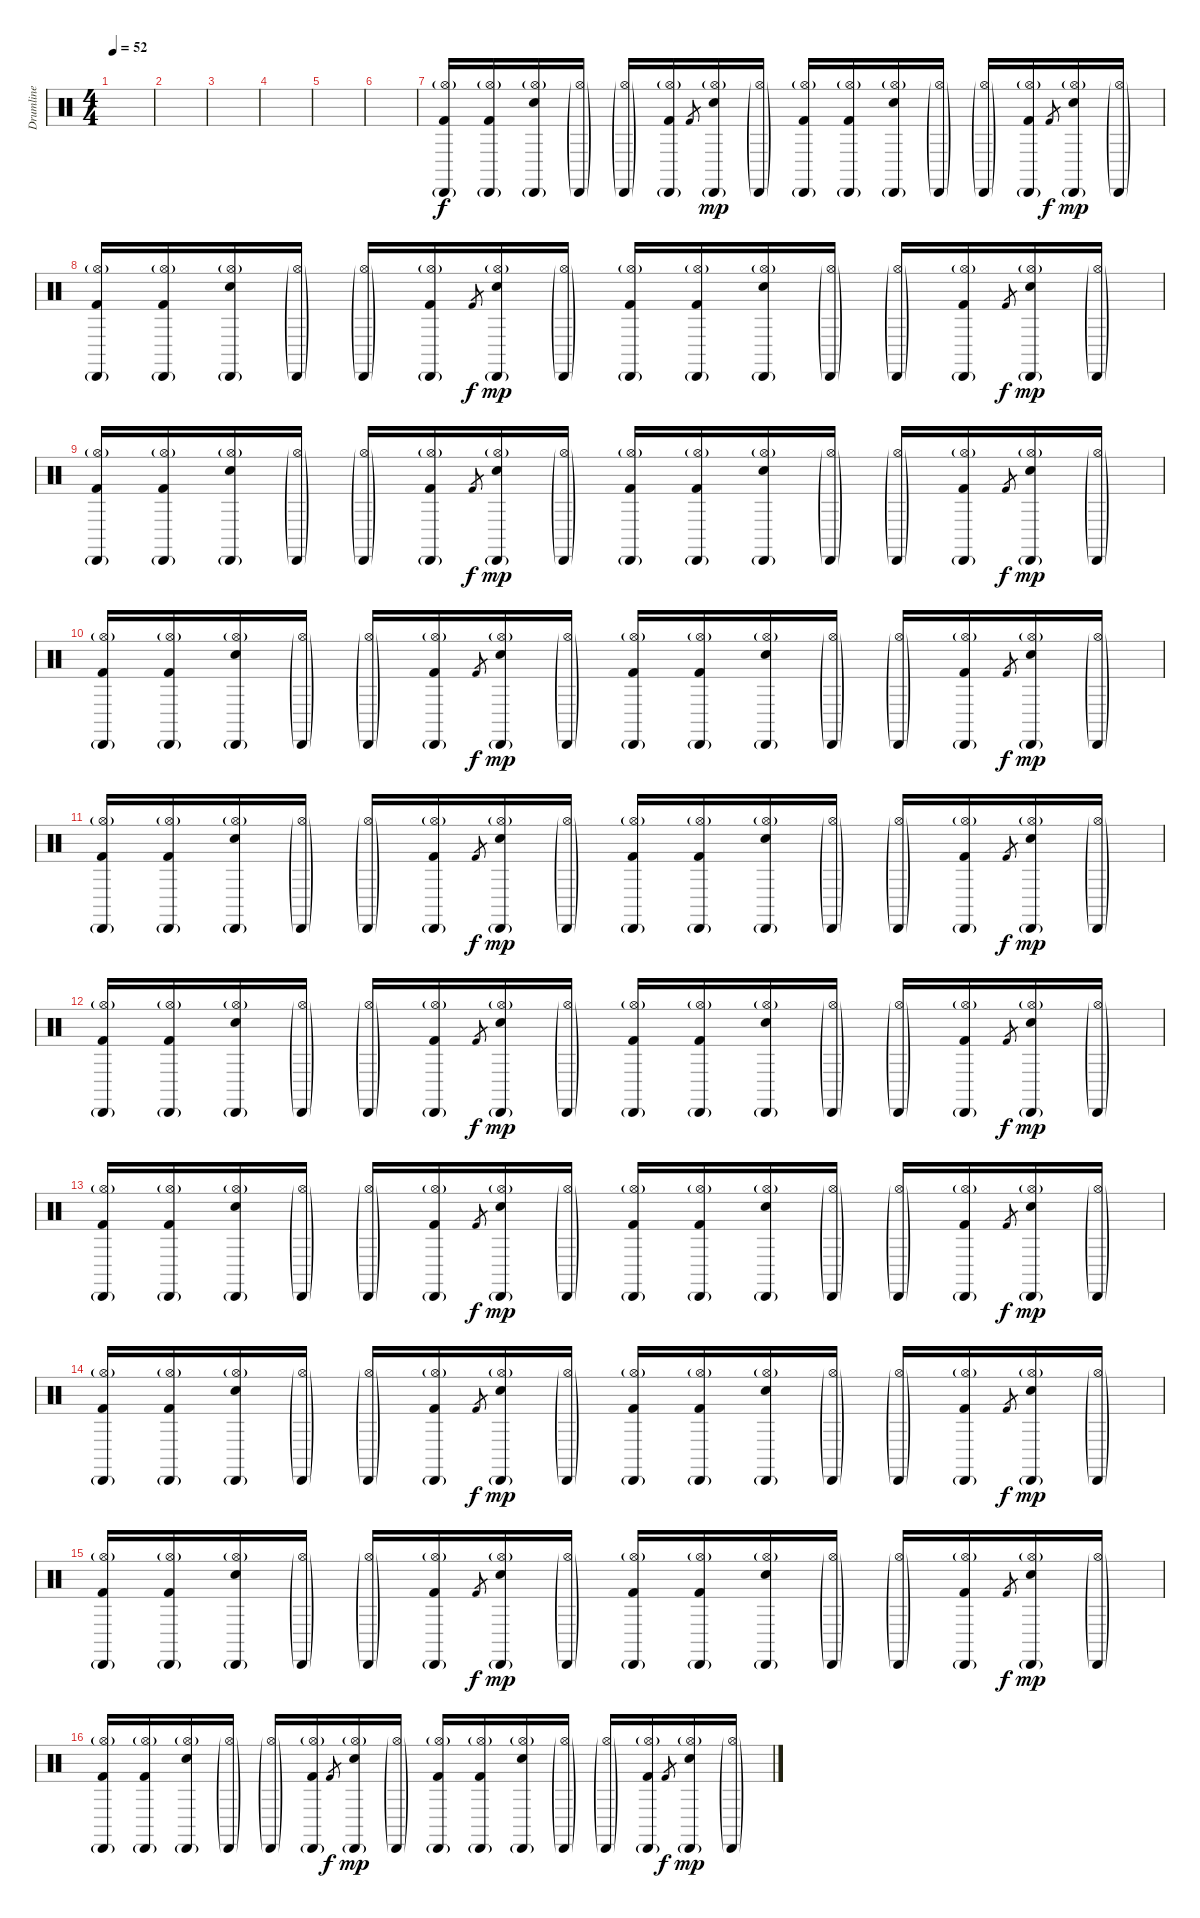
\track ("Drumline" "Drumline") {instrument percussion}
\staff {score}
\articulation defaults
\ts (4 4)
\tempo 52
\clef neutral
\ks c
|
|
|
|
|
|
("Hi-Hat (open)"{g} "Cabasa (hit)"{g} "Kick (hit) 2").16 ("Hi-Hat (open)"{g} "Cabasa (hit)"{g} "Kick (hit) 2").16 ("Hi-Hat (open)"{g} "Cabasa (hit)"{g} "Snare (hit) 2").16 ("Hi-Hat (open)"{g} "Cabasa (hit)"{g}).16 ("Hi-Hat (open)"{g} "Cabasa (hit)"{g}).16 ("Hi-Hat (open)"{g} "Cabasa (hit)"{g} "Kick (hit) 2").16 "Kick (hit) 2".8{gr dy f} ("Hi-Hat (open)"{g} "Cabasa (hit)"{g} "Snare (hit) 2").16{dy mp} ("Hi-Hat (open)"{g} "Cabasa (hit)"{g}).16 ("Hi-Hat (open)"{g} "Cabasa (hit)"{g} "Kick (hit) 2").16 ("Hi-Hat (open)"{g} "Cabasa (hit)"{g} "Kick (hit) 2").16 ("Hi-Hat (open)"{g} "Cabasa (hit)"{g} "Snare (hit) 2").16 ("Hi-Hat (open)"{g} "Cabasa (hit)"{g}).16 ("Hi-Hat (open)"{g} "Cabasa (hit)"{g}).16 ("Hi-Hat (open)"{g} "Cabasa (hit)"{g} "Kick (hit) 2").16 "Kick (hit) 2".8{gr dy f} ("Hi-Hat (open)"{g} "Cabasa (hit)"{g} "Snare (hit) 2").16{dy mp} ("Hi-Hat (open)"{g} "Cabasa (hit)"{g}).16 |
("Hi-Hat (open)"{g} "Cabasa (hit)"{g} "Kick (hit) 2").16 ("Hi-Hat (open)"{g} "Cabasa (hit)"{g} "Kick (hit) 2").16 ("Hi-Hat (open)"{g} "Cabasa (hit)"{g} "Snare (hit) 2").16 ("Hi-Hat (open)"{g} "Cabasa (hit)"{g}).16 ("Hi-Hat (open)"{g} "Cabasa (hit)"{g}).16 ("Hi-Hat (open)"{g} "Cabasa (hit)"{g} "Kick (hit) 2").16 "Kick (hit) 2".8{gr dy f} ("Hi-Hat (open)"{g} "Cabasa (hit)"{g} "Snare (hit) 2").16{dy mp} ("Hi-Hat (open)"{g} "Cabasa (hit)"{g}).16 ("Hi-Hat (open)"{g} "Cabasa (hit)"{g} "Kick (hit) 2").16 ("Hi-Hat (open)"{g} "Cabasa (hit)"{g} "Kick (hit) 2").16 ("Hi-Hat (open)"{g} "Cabasa (hit)"{g} "Snare (hit) 2").16 ("Hi-Hat (open)"{g} "Cabasa (hit)"{g}).16 ("Hi-Hat (open)"{g} "Cabasa (hit)"{g}).16 ("Hi-Hat (open)"{g} "Cabasa (hit)"{g} "Kick (hit) 2").16 "Kick (hit) 2".8{gr dy f} ("Hi-Hat (open)"{g} "Cabasa (hit)"{g} "Snare (hit) 2").16{dy mp} ("Hi-Hat (open)"{g} "Cabasa (hit)"{g}).16 |
("Hi-Hat (open)"{g} "Cabasa (hit)"{g} "Kick (hit) 2").16 ("Hi-Hat (open)"{g} "Cabasa (hit)"{g} "Kick (hit) 2").16 ("Hi-Hat (open)"{g} "Cabasa (hit)"{g} "Snare (hit) 2").16 ("Hi-Hat (open)"{g} "Cabasa (hit)"{g}).16 ("Hi-Hat (open)"{g} "Cabasa (hit)"{g}).16 ("Hi-Hat (open)"{g} "Cabasa (hit)"{g} "Kick (hit) 2").16 "Kick (hit) 2".8{gr dy f} ("Hi-Hat (open)"{g} "Cabasa (hit)"{g} "Snare (hit) 2").16{dy mp} ("Hi-Hat (open)"{g} "Cabasa (hit)"{g}).16 ("Hi-Hat (open)"{g} "Cabasa (hit)"{g} "Kick (hit) 2").16 ("Hi-Hat (open)"{g} "Cabasa (hit)"{g} "Kick (hit) 2").16 ("Hi-Hat (open)"{g} "Cabasa (hit)"{g} "Snare (hit) 2").16 ("Hi-Hat (open)"{g} "Cabasa (hit)"{g}).16 ("Hi-Hat (open)"{g} "Cabasa (hit)"{g}).16 ("Hi-Hat (open)"{g} "Cabasa (hit)"{g} "Kick (hit) 2").16 "Kick (hit) 2".8{gr dy f} ("Hi-Hat (open)"{g} "Cabasa (hit)"{g} "Snare (hit) 2").16{dy mp} ("Hi-Hat (open)"{g} "Cabasa (hit)"{g}).16 |
("Hi-Hat (open)"{g} "Cabasa (hit)"{g} "Kick (hit) 2").16 ("Hi-Hat (open)"{g} "Cabasa (hit)"{g} "Kick (hit) 2").16 ("Hi-Hat (open)"{g} "Cabasa (hit)"{g} "Snare (hit) 2").16 ("Hi-Hat (open)"{g} "Cabasa (hit)"{g}).16 ("Hi-Hat (open)"{g} "Cabasa (hit)"{g}).16 ("Hi-Hat (open)"{g} "Cabasa (hit)"{g} "Kick (hit) 2").16 "Kick (hit) 2".8{gr dy f} ("Hi-Hat (open)"{g} "Cabasa (hit)"{g} "Snare (hit) 2").16{dy mp} ("Hi-Hat (open)"{g} "Cabasa (hit)"{g}).16 ("Hi-Hat (open)"{g} "Cabasa (hit)"{g} "Kick (hit) 2").16 ("Hi-Hat (open)"{g} "Cabasa (hit)"{g} "Kick (hit) 2").16 ("Hi-Hat (open)"{g} "Cabasa (hit)"{g} "Snare (hit) 2").16 ("Hi-Hat (open)"{g} "Cabasa (hit)"{g}).16 ("Hi-Hat (open)"{g} "Cabasa (hit)"{g}).16 ("Hi-Hat (open)"{g} "Cabasa (hit)"{g} "Kick (hit) 2").16 "Kick (hit) 2".8{gr dy f} ("Hi-Hat (open)"{g} "Cabasa (hit)"{g} "Snare (hit) 2").16{dy mp} ("Hi-Hat (open)"{g} "Cabasa (hit)"{g}).16 |
("Hi-Hat (open)"{g} "Cabasa (hit)"{g} "Kick (hit) 2").16 ("Hi-Hat (open)"{g} "Cabasa (hit)"{g} "Kick (hit) 2").16 ("Hi-Hat (open)"{g} "Cabasa (hit)"{g} "Snare (hit) 2").16 ("Hi-Hat (open)"{g} "Cabasa (hit)"{g}).16 ("Hi-Hat (open)"{g} "Cabasa (hit)"{g}).16 ("Hi-Hat (open)"{g} "Cabasa (hit)"{g} "Kick (hit) 2").16 "Kick (hit) 2".8{gr dy f} ("Hi-Hat (open)"{g} "Cabasa (hit)"{g} "Snare (hit) 2").16{dy mp} ("Hi-Hat (open)"{g} "Cabasa (hit)"{g}).16 ("Hi-Hat (open)"{g} "Cabasa (hit)"{g} "Kick (hit) 2").16 ("Hi-Hat (open)"{g} "Cabasa (hit)"{g} "Kick (hit) 2").16 ("Hi-Hat (open)"{g} "Cabasa (hit)"{g} "Snare (hit) 2").16 ("Hi-Hat (open)"{g} "Cabasa (hit)"{g}).16 ("Hi-Hat (open)"{g} "Cabasa (hit)"{g}).16 ("Hi-Hat (open)"{g} "Cabasa (hit)"{g} "Kick (hit) 2").16 "Kick (hit) 2".8{gr dy f} ("Hi-Hat (open)"{g} "Cabasa (hit)"{g} "Snare (hit) 2").16{dy mp} ("Hi-Hat (open)"{g} "Cabasa (hit)"{g}).16 |
("Hi-Hat (open)"{g} "Cabasa (hit)"{g} "Kick (hit) 2").16 ("Hi-Hat (open)"{g} "Cabasa (hit)"{g} "Kick (hit) 2").16 ("Hi-Hat (open)"{g} "Cabasa (hit)"{g} "Snare (hit) 2").16 ("Hi-Hat (open)"{g} "Cabasa (hit)"{g}).16 ("Hi-Hat (open)"{g} "Cabasa (hit)"{g}).16 ("Hi-Hat (open)"{g} "Cabasa (hit)"{g} "Kick (hit) 2").16 "Kick (hit) 2".8{gr dy f} ("Hi-Hat (open)"{g} "Cabasa (hit)"{g} "Snare (hit) 2").16{dy mp} ("Hi-Hat (open)"{g} "Cabasa (hit)"{g}).16 ("Hi-Hat (open)"{g} "Cabasa (hit)"{g} "Kick (hit) 2").16 ("Hi-Hat (open)"{g} "Cabasa (hit)"{g} "Kick (hit) 2").16 ("Hi-Hat (open)"{g} "Cabasa (hit)"{g} "Snare (hit) 2").16 ("Hi-Hat (open)"{g} "Cabasa (hit)"{g}).16 ("Hi-Hat (open)"{g} "Cabasa (hit)"{g}).16 ("Hi-Hat (open)"{g} "Cabasa (hit)"{g} "Kick (hit) 2").16 "Kick (hit) 2".8{gr dy f} ("Hi-Hat (open)"{g} "Cabasa (hit)"{g} "Snare (hit) 2").16{dy mp} ("Hi-Hat (open)"{g} "Cabasa (hit)"{g}).16 |
("Hi-Hat (open)"{g} "Cabasa (hit)"{g} "Kick (hit) 2").16 ("Hi-Hat (open)"{g} "Cabasa (hit)"{g} "Kick (hit) 2").16 ("Hi-Hat (open)"{g} "Cabasa (hit)"{g} "Snare (hit) 2").16 ("Hi-Hat (open)"{g} "Cabasa (hit)"{g}).16 ("Hi-Hat (open)"{g} "Cabasa (hit)"{g}).16 ("Hi-Hat (open)"{g} "Cabasa (hit)"{g} "Kick (hit) 2").16 "Kick (hit) 2".8{gr dy f} ("Hi-Hat (open)"{g} "Cabasa (hit)"{g} "Snare (hit) 2").16{dy mp} ("Hi-Hat (open)"{g} "Cabasa (hit)"{g}).16 ("Hi-Hat (open)"{g} "Cabasa (hit)"{g} "Kick (hit) 2").16 ("Hi-Hat (open)"{g} "Cabasa (hit)"{g} "Kick (hit) 2").16 ("Hi-Hat (open)"{g} "Cabasa (hit)"{g} "Snare (hit) 2").16 ("Hi-Hat (open)"{g} "Cabasa (hit)"{g}).16 ("Hi-Hat (open)"{g} "Cabasa (hit)"{g}).16 ("Hi-Hat (open)"{g} "Cabasa (hit)"{g} "Kick (hit) 2").16 "Kick (hit) 2".8{gr dy f} ("Hi-Hat (open)"{g} "Cabasa (hit)"{g} "Snare (hit) 2").16{dy mp} ("Hi-Hat (open)"{g} "Cabasa (hit)"{g}).16 |
("Hi-Hat (open)"{g} "Cabasa (hit)"{g} "Kick (hit) 2").16 ("Hi-Hat (open)"{g} "Cabasa (hit)"{g} "Kick (hit) 2").16 ("Hi-Hat (open)"{g} "Cabasa (hit)"{g} "Snare (hit) 2").16 ("Hi-Hat (open)"{g} "Cabasa (hit)"{g}).16 ("Hi-Hat (open)"{g} "Cabasa (hit)"{g}).16 ("Hi-Hat (open)"{g} "Cabasa (hit)"{g} "Kick (hit) 2").16 "Kick (hit) 2".8{gr dy f} ("Hi-Hat (open)"{g} "Cabasa (hit)"{g} "Snare (hit) 2").16{dy mp} ("Hi-Hat (open)"{g} "Cabasa (hit)"{g}).16 ("Hi-Hat (open)"{g} "Cabasa (hit)"{g} "Kick (hit) 2").16 ("Hi-Hat (open)"{g} "Cabasa (hit)"{g} "Kick (hit) 2").16 ("Hi-Hat (open)"{g} "Cabasa (hit)"{g} "Snare (hit) 2").16 ("Hi-Hat (open)"{g} "Cabasa (hit)"{g}).16 ("Hi-Hat (open)"{g} "Cabasa (hit)"{g}).16 ("Hi-Hat (open)"{g} "Cabasa (hit)"{g} "Kick (hit) 2").16 "Kick (hit) 2".8{gr dy f} ("Hi-Hat (open)"{g} "Cabasa (hit)"{g} "Snare (hit) 2").16{dy mp} ("Hi-Hat (open)"{g} "Cabasa (hit)"{g}).16 |
("Hi-Hat (open)"{g} "Cabasa (hit)"{g} "Kick (hit) 2").16 ("Hi-Hat (open)"{g} "Cabasa (hit)"{g} "Kick (hit) 2").16 ("Hi-Hat (open)"{g} "Cabasa (hit)"{g} "Snare (hit) 2").16 ("Hi-Hat (open)"{g} "Cabasa (hit)"{g}).16 ("Hi-Hat (open)"{g} "Cabasa (hit)"{g}).16 ("Hi-Hat (open)"{g} "Cabasa (hit)"{g} "Kick (hit) 2").16 "Kick (hit) 2".8{gr dy f} ("Hi-Hat (open)"{g} "Cabasa (hit)"{g} "Snare (hit) 2").16{dy mp} ("Hi-Hat (open)"{g} "Cabasa (hit)"{g}).16 ("Hi-Hat (open)"{g} "Cabasa (hit)"{g} "Kick (hit) 2").16 ("Hi-Hat (open)"{g} "Cabasa (hit)"{g} "Kick (hit) 2").16 ("Hi-Hat (open)"{g} "Cabasa (hit)"{g} "Snare (hit) 2").16 ("Hi-Hat (open)"{g} "Cabasa (hit)"{g}).16 ("Hi-Hat (open)"{g} "Cabasa (hit)"{g}).16 ("Hi-Hat (open)"{g} "Cabasa (hit)"{g} "Kick (hit) 2").16 "Kick (hit) 2".8{gr dy f} ("Hi-Hat (open)"{g} "Cabasa (hit)"{g} "Snare (hit) 2").16{dy mp} ("Hi-Hat (open)"{g} "Cabasa (hit)"{g}).16 |
("Hi-Hat (open)"{g} "Cabasa (hit)"{g} "Kick (hit) 2").16 ("Hi-Hat (open)"{g} "Cabasa (hit)"{g} "Kick (hit) 2").16 ("Hi-Hat (open)"{g} "Cabasa (hit)"{g} "Snare (hit) 2").16 ("Hi-Hat (open)"{g} "Cabasa (hit)"{g}).16 ("Hi-Hat (open)"{g} "Cabasa (hit)"{g}).16 ("Hi-Hat (open)"{g} "Cabasa (hit)"{g} "Kick (hit) 2").16 "Kick (hit) 2".8{gr dy f} ("Hi-Hat (open)"{g} "Cabasa (hit)"{g} "Snare (hit) 2").16{dy mp} ("Hi-Hat (open)"{g} "Cabasa (hit)"{g}).16 ("Hi-Hat (open)"{g} "Cabasa (hit)"{g} "Kick (hit) 2").16 ("Hi-Hat (open)"{g} "Cabasa (hit)"{g} "Kick (hit) 2").16 ("Hi-Hat (open)"{g} "Cabasa (hit)"{g} "Snare (hit) 2").16 ("Hi-Hat (open)"{g} "Cabasa (hit)"{g}).16 ("Hi-Hat (open)"{g} "Cabasa (hit)"{g}).16 ("Hi-Hat (open)"{g} "Cabasa (hit)"{g} "Kick (hit) 2").16 "Kick (hit) 2".8{gr dy f} ("Hi-Hat (open)"{g} "Cabasa (hit)"{g} "Snare (hit) 2").16{dy mp} ("Hi-Hat (open)"{g} "Cabasa (hit)"{g}).16
